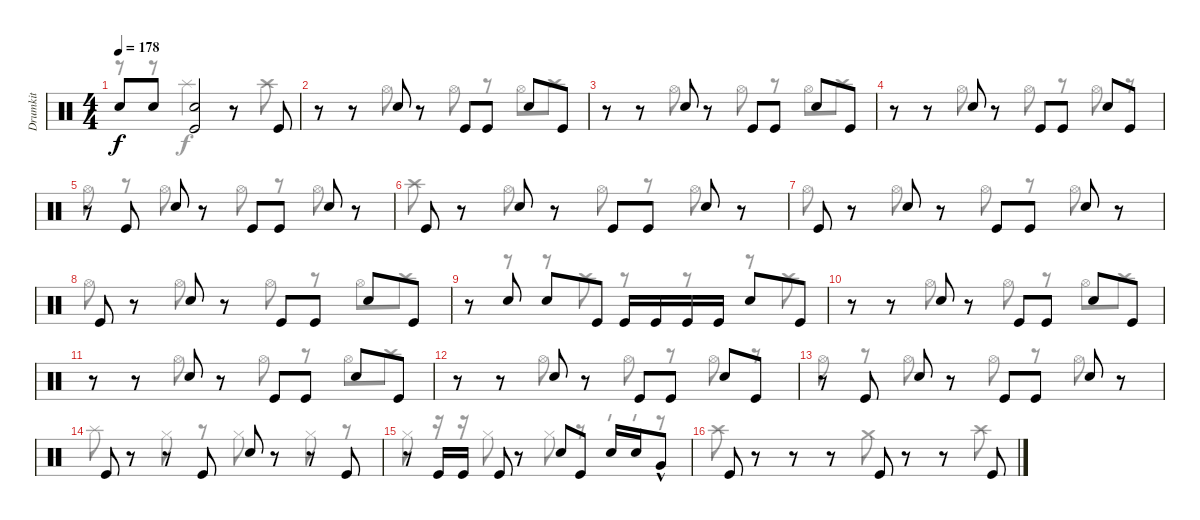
\track ("Drumkit" "Drumkit") {instrument percussion}
\staff {score}
\articulation defaults
\voice
\ts (4 4)
\tempo 178
\clef neutral
\ks c "Snare (hit) 2".8{dy f} "Snare (hit) 2".8
("Snare (hit) 2" "Kick (hit)").2 r.8 "Kick (hit)".8 |
\section ("" "")
r.8 r.8 "Snare (hit) 2".8 r.8 "Kick (hit)".8 "Kick (hit)".8 "Snare (hit) 2".8 "Kick (hit)".8 |
r.8 r.8 "Snare (hit) 2".8 r.8 "Kick (hit)".8 "Kick (hit)".8 "Snare (hit) 2".8 "Kick (hit)".8 |
r.8 r.8 "Snare (hit) 2".8 r.8 "Kick (hit)".8 "Kick (hit)".8 "Snare (hit) 2".8 "Kick (hit)".8 |
r.8 "Kick (hit)".8 "Snare (hit) 2".8 r.8 "Kick (hit)".8 "Kick (hit)".8 "Snare (hit) 2".8 r.8 |
"Kick (hit)".8 r.8 "Snare (hit) 2".8 r.8 "Kick (hit)".8 "Kick (hit)".8 "Snare (hit) 2".8 r.8 |
"Kick (hit)".8 r.8 "Snare (hit) 2".8 r.8 "Kick (hit)".8 "Kick (hit)".8 "Snare (hit) 2".8 r.8 |
"Kick (hit)".8 r.8 "Snare (hit) 2".8 r.8 "Kick (hit)".8 "Kick (hit)".8 "Snare (hit) 2".8 "Kick (hit)".8 |
r.8 "Snare (hit) 2".8 "Snare (hit) 2".8 "Kick (hit)".8 "Kick (hit)".16 "Kick (hit)".16 "Kick (hit)".16 "Kick (hit)".16 "Snare (hit) 2".8 "Kick (hit)".8 |
r.8 r.8 "Snare (hit) 2".8 r.8 "Kick (hit)".8 "Kick (hit)".8 "Snare (hit) 2".8 "Kick (hit)".8 |
r.8 r.8 "Snare (hit) 2".8 r.8 "Kick (hit)".8 "Kick (hit)".8 "Snare (hit) 2".8 "Kick (hit)".8 |
r.8 r.8 "Snare (hit) 2".8 r.8 "Kick (hit)".8 "Kick (hit)".8 "Snare (hit) 2".8 "Kick (hit)".8 |
r.8 "Kick (hit)".8 "Snare (hit) 2".8 r.8 "Kick (hit)".8 "Kick (hit)".8 "Snare (hit) 2".8 r.8 |
"Kick (hit)".8 r.8 r.8 "Kick (hit)".8 "Snare (hit) 2".8 r.8 r.8 "Kick (hit)".8 |
r.8 "Kick (hit)".16 "Kick (hit)".16 "Kick (hit)".8 r.8 "Snare (hit) 2".8 "Kick (hit)".8 "Snare (hit) 2".16 "Snare (hit) 2".16 "Very Low Tom (hit)"{hac}.8 |
"Kick (hit)".8 r.8 r.8 r.8 "Kick (hit)".8 r.8 r.8 "Kick (hit)".8
\voice
\clef neutral
\ottava regular
\simile none
\ks c
r.8{dy f} r.8 "Splash (hit)".2 r.8 "Crash high (hit)".8 |
r.8 r.8 "Hi-Hat (open)".8 r.8 "Hi-Hat (open)".8 r.8 "Hi-Hat (open)".8 "Crash high (hit)".8 |
r.8 r.8 "Hi-Hat (open)".8 r.8 "Hi-Hat (open)".8 r.8 "Hi-Hat (open)".8 "Crash high (hit)".8 |
r.8 r.8 "Hi-Hat (open)".8 r.8 "Hi-Hat (open)".8 r.8 "Hi-Hat (open)".8 r.8 |
"Hi-Hat (open)".8 r.8 "Hi-Hat (open)".8 r.8 "Hi-Hat (open)".8 r.8 "Hi-Hat (open)".8 r.8 |
"Crash high (hit)".8 r.8 "Hi-Hat (open)".8 r.8 "Hi-Hat (open)".8 r.8 "Hi-Hat (open)".8 r.8 |
"Hi-Hat (open)".8 r.8 "Hi-Hat (open)".8 r.8 "Hi-Hat (open)".8 r.8 "Hi-Hat (open)".8 r.8 |
"Hi-Hat (open)".8 r.8 "Hi-Hat (open)".8 r.8 "Hi-Hat (open)".8 r.8 "Hi-Hat (open)".8 "Crash high (hit)".8 |
r.8 r.8 r.8 "Crash high (hit)".8 r.8 r.8 r.8 "Crash high (hit)".8 |
r.8 r.8 "Hi-Hat (open)".8 r.8 "Hi-Hat (open)".8 r.8 "Hi-Hat (open)".8 "Crash high (hit)".8 |
r.8 r.8 "Hi-Hat (open)".8 r.8 "Hi-Hat (open)".8 r.8 "Hi-Hat (open)".8 "Crash high (hit)".8 |
r.8 r.8 "Hi-Hat (open)".8 r.8 "Hi-Hat (open)".8 r.8 "Hi-Hat (open)".8 r.8 |
"Hi-Hat (open)".8 r.8 "Hi-Hat (open)".8 r.8 "Hi-Hat (open)".8 r.8 "Hi-Hat (open)".8 r.8 |
"Splash (hit)".8 r.8 "Hi-Hat (closed)".8 r.8 "Hi-Hat (closed)".8 r.8 "Hi-Hat (closed)".8 r.8 |
"Hi-Hat (closed)".8 r.16 r.16 "Hi-Hat (closed)".8 r.8 "Hi-Hat (closed)".8 r.8 r.16 r.16 r.8 |
"Crash high (hit)".8 r.8 r.8 r.8 "Crash medium (hit)".8 r.8 r.8 "Crash high (hit)".8
